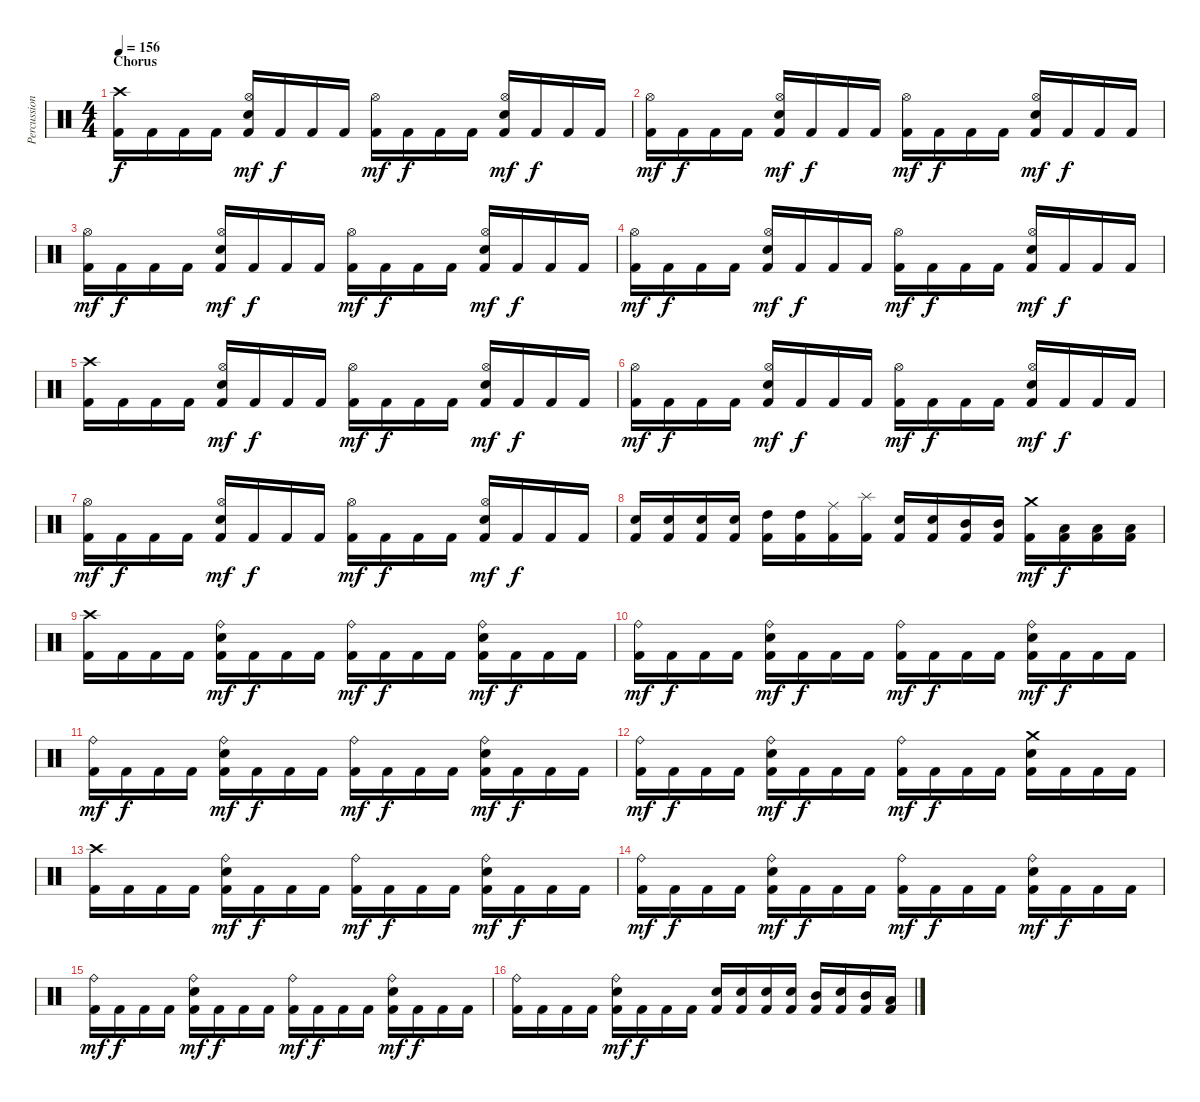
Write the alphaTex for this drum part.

\track ("Percussion" "Percussion") {instrument percussion}
\staff {score}
\articulation defaults
\ts (4 4)
\section ("" "Chorus")
\tempo 156
\clef neutral
\ks c
("Crash high (hit)" "Kick (hit) 2").16{dy f} "Kick (hit) 2".16 "Kick (hit) 2".16 "Kick (hit) 2".16 ("Hi-Hat (open)" "Electric Snare (hit)" "Kick (hit) 2").16{dy mf} "Kick (hit) 2".16{dy f} "Kick (hit) 2".16 "Kick (hit) 2".16 ("Hi-Hat (open)" "Kick (hit) 2").16{dy mf} "Kick (hit) 2".16{dy f} "Kick (hit) 2".16 "Kick (hit) 2".16 ("Hi-Hat (open)" "Electric Snare (hit)" "Kick (hit) 2").16{dy mf} "Kick (hit) 2".16{dy f} "Kick (hit) 2".16 "Kick (hit) 2".16 |
("Hi-Hat (open)" "Kick (hit) 2").16{dy mf} "Kick (hit) 2".16{dy f} "Kick (hit) 2".16 "Kick (hit) 2".16 ("Hi-Hat (open)" "Electric Snare (hit)" "Kick (hit) 2").16{dy mf} "Kick (hit) 2".16{dy f} "Kick (hit) 2".16 "Kick (hit) 2".16 ("Hi-Hat (open)" "Kick (hit) 2").16{dy mf} "Kick (hit) 2".16{dy f} "Kick (hit) 2".16 "Kick (hit) 2".16 ("Hi-Hat (open)" "Electric Snare (hit)" "Kick (hit) 2").16{dy mf} "Kick (hit) 2".16{dy f} "Kick (hit) 2".16 "Kick (hit) 2".16 |
("Hi-Hat (open)" "Kick (hit) 2").16{dy mf} "Kick (hit) 2".16{dy f} "Kick (hit) 2".16 "Kick (hit) 2".16 ("Hi-Hat (open)" "Electric Snare (hit)" "Kick (hit) 2").16{dy mf} "Kick (hit) 2".16{dy f} "Kick (hit) 2".16 "Kick (hit) 2".16 ("Hi-Hat (open)" "Kick (hit) 2").16{dy mf} "Kick (hit) 2".16{dy f} "Kick (hit) 2".16 "Kick (hit) 2".16 ("Hi-Hat (open)" "Electric Snare (hit)" "Kick (hit) 2").16{dy mf} "Kick (hit) 2".16{dy f} "Kick (hit) 2".16 "Kick (hit) 2".16 |
("Hi-Hat (open)" "Kick (hit) 2").16{dy mf} "Kick (hit) 2".16{dy f} "Kick (hit) 2".16 "Kick (hit) 2".16 ("Hi-Hat (open)" "Electric Snare (hit)" "Kick (hit) 2").16{dy mf} "Kick (hit) 2".16{dy f} "Kick (hit) 2".16 "Kick (hit) 2".16 ("Hi-Hat (open)" "Kick (hit) 2").16{dy mf} "Kick (hit) 2".16{dy f} "Kick (hit) 2".16 "Kick (hit) 2".16 ("Hi-Hat (open)" "Electric Snare (hit)" "Kick (hit) 2").16{dy mf} "Kick (hit) 2".16{dy f} "Kick (hit) 2".16 "Kick (hit) 2".16 |
("Crash high (hit)" "Kick (hit) 2").16 "Kick (hit) 2".16 "Kick (hit) 2".16 "Kick (hit) 2".16 ("Hi-Hat (open)" "Electric Snare (hit)" "Kick (hit) 2").16{dy mf} "Kick (hit) 2".16{dy f} "Kick (hit) 2".16 "Kick (hit) 2".16 ("Hi-Hat (open)" "Kick (hit) 2").16{dy mf} "Kick (hit) 2".16{dy f} "Kick (hit) 2".16 "Kick (hit) 2".16 ("Hi-Hat (open)" "Electric Snare (hit)" "Kick (hit) 2").16{dy mf} "Kick (hit) 2".16{dy f} "Kick (hit) 2".16 "Kick (hit) 2".16 |
("Hi-Hat (open)" "Kick (hit) 2").16{dy mf} "Kick (hit) 2".16{dy f} "Kick (hit) 2".16 "Kick (hit) 2".16 ("Hi-Hat (open)" "Electric Snare (hit)" "Kick (hit) 2").16{dy mf} "Kick (hit) 2".16{dy f} "Kick (hit) 2".16 "Kick (hit) 2".16 ("Hi-Hat (open)" "Kick (hit) 2").16{dy mf} "Kick (hit) 2".16{dy f} "Kick (hit) 2".16 "Kick (hit) 2".16 ("Hi-Hat (open)" "Electric Snare (hit)" "Kick (hit) 2").16{dy mf} "Kick (hit) 2".16{dy f} "Kick (hit) 2".16 "Kick (hit) 2".16 |
("Hi-Hat (open)" "Kick (hit) 2").16{dy mf} "Kick (hit) 2".16{dy f} "Kick (hit) 2".16 "Kick (hit) 2".16 ("Hi-Hat (open)" "Electric Snare (hit)" "Kick (hit) 2").16{dy mf} "Kick (hit) 2".16{dy f} "Kick (hit) 2".16 "Kick (hit) 2".16 ("Hi-Hat (open)" "Kick (hit) 2").16{dy mf} "Kick (hit) 2".16{dy f} "Kick (hit) 2".16 "Kick (hit) 2".16 ("Hi-Hat (open)" "Electric Snare (hit)" "Kick (hit) 2").16{dy mf} "Kick (hit) 2".16{dy f} "Kick (hit) 2".16 "Kick (hit) 2".16 |
("Electric Snare (hit)" "Kick (hit) 2").16 ("Electric Snare (hit)" "Kick (hit) 2").16 ("Electric Snare (hit)" "Kick (hit) 2").16 ("Electric Snare (hit)" "Kick (hit) 2").16 ("High Tom (hit)" "Kick (hit) 2").16 ("High Tom (hit)" "Kick (hit) 2").16 ("Ride (middle)" "Kick (hit) 2").16 ("Splash (hit)" "Kick (hit) 2").16 ("Electric Snare (hit)" "Kick (hit) 2").16 ("Electric Snare (hit)" "Kick (hit) 2").16 ("Mid Tom (hit)" "Kick (hit) 2").16 ("Mid Tom (hit)" "Kick (hit) 2").16 ("Crash medium (hit)" "Kick (hit) 2").16{dy mf} ("Low Tom (hit)" "Kick (hit) 2").16{dy f} ("Low Tom (hit)" "Kick (hit) 2").16 ("Low Tom (hit)" "Kick (hit) 2").16 |
("Crash high (hit)" "Kick (hit) 2").16 "Kick (hit) 2".16 "Kick (hit) 2".16 "Kick (hit) 2".16 ("Ride (bell)" "Electric Snare (hit)" "Kick (hit) 2").16{dy mf} "Kick (hit) 2".16{dy f} "Kick (hit) 2".16 "Kick (hit) 2".16 ("Ride (bell)" "Kick (hit) 2").16{dy mf} "Kick (hit) 2".16{dy f} "Kick (hit) 2".16 "Kick (hit) 2".16 ("Ride (bell)" "Electric Snare (hit)" "Kick (hit) 2").16{dy mf} "Kick (hit) 2".16{dy f} "Kick (hit) 2".16 "Kick (hit) 2".16 |
("Ride (bell)" "Kick (hit) 2").16{dy mf} "Kick (hit) 2".16{dy f} "Kick (hit) 2".16 "Kick (hit) 2".16 ("Ride (bell)" "Electric Snare (hit)" "Kick (hit) 2").16{dy mf} "Kick (hit) 2".16{dy f} "Kick (hit) 2".16 "Kick (hit) 2".16 ("Ride (bell)" "Kick (hit) 2").16{dy mf} "Kick (hit) 2".16{dy f} "Kick (hit) 2".16 "Kick (hit) 2".16 ("Ride (bell)" "Electric Snare (hit)" "Kick (hit) 2").16{dy mf} "Kick (hit) 2".16{dy f} "Kick (hit) 2".16 "Kick (hit) 2".16 |
("Ride (bell)" "Kick (hit) 2").16{dy mf} "Kick (hit) 2".16{dy f} "Kick (hit) 2".16 "Kick (hit) 2".16 ("Ride (bell)" "Electric Snare (hit)" "Kick (hit) 2").16{dy mf} "Kick (hit) 2".16{dy f} "Kick (hit) 2".16 "Kick (hit) 2".16 ("Ride (bell)" "Kick (hit) 2").16{dy mf} "Kick (hit) 2".16{dy f} "Kick (hit) 2".16 "Kick (hit) 2".16 ("Ride (bell)" "Electric Snare (hit)" "Kick (hit) 2").16{dy mf} "Kick (hit) 2".16{dy f} "Kick (hit) 2".16 "Kick (hit) 2".16 |
("Ride (bell)" "Kick (hit) 2").16{dy mf} "Kick (hit) 2".16{dy f} "Kick (hit) 2".16 "Kick (hit) 2".16 ("Ride (bell)" "Electric Snare (hit)" "Kick (hit) 2").16{dy mf} "Kick (hit) 2".16{dy f} "Kick (hit) 2".16 "Kick (hit) 2".16 ("Ride (bell)" "Kick (hit) 2").16{dy mf} "Kick (hit) 2".16{dy f} "Kick (hit) 2".16 "Kick (hit) 2".16 ("Crash medium (hit)" "Electric Snare (hit)" "Kick (hit) 2").16 "Kick (hit) 2".16 "Kick (hit) 2".16 "Kick (hit) 2".16 |
("Crash high (hit)" "Kick (hit) 2").16 "Kick (hit) 2".16 "Kick (hit) 2".16 "Kick (hit) 2".16 ("Ride (bell)" "Electric Snare (hit)" "Kick (hit) 2").16{dy mf} "Kick (hit) 2".16{dy f} "Kick (hit) 2".16 "Kick (hit) 2".16 ("Ride (bell)" "Kick (hit) 2").16{dy mf} "Kick (hit) 2".16{dy f} "Kick (hit) 2".16 "Kick (hit) 2".16 ("Ride (bell)" "Electric Snare (hit)" "Kick (hit) 2").16{dy mf} "Kick (hit) 2".16{dy f} "Kick (hit) 2".16 "Kick (hit) 2".16 |
("Ride (bell)" "Kick (hit) 2").16{dy mf} "Kick (hit) 2".16{dy f} "Kick (hit) 2".16 "Kick (hit) 2".16 ("Ride (bell)" "Electric Snare (hit)" "Kick (hit) 2").16{dy mf} "Kick (hit) 2".16{dy f} "Kick (hit) 2".16 "Kick (hit) 2".16 ("Ride (bell)" "Kick (hit) 2").16{dy mf} "Kick (hit) 2".16{dy f} "Kick (hit) 2".16 "Kick (hit) 2".16 ("Ride (bell)" "Electric Snare (hit)" "Kick (hit) 2").16{dy mf} "Kick (hit) 2".16{dy f} "Kick (hit) 2".16 "Kick (hit) 2".16 |
("Ride (bell)" "Kick (hit) 2").16{dy mf} "Kick (hit) 2".16{dy f} "Kick (hit) 2".16 "Kick (hit) 2".16 ("Ride (bell)" "Electric Snare (hit)" "Kick (hit) 2").16{dy mf} "Kick (hit) 2".16{dy f} "Kick (hit) 2".16 "Kick (hit) 2".16 ("Ride (bell)" "Kick (hit) 2").16{dy mf} "Kick (hit) 2".16{dy f} "Kick (hit) 2".16 "Kick (hit) 2".16 ("Ride (bell)" "Electric Snare (hit)" "Kick (hit) 2").16{dy mf} "Kick (hit) 2".16{dy f} "Kick (hit) 2".16 "Kick (hit) 2".16 |
("Ride (bell)" "Kick (hit) 2").16 "Kick (hit) 2".16 "Kick (hit) 2".16 "Kick (hit) 2".16 ("Ride (bell)" "Electric Snare (hit)" "Kick (hit) 2").16{dy mf} "Kick (hit) 2".16{dy f} "Kick (hit) 2".16 "Kick (hit) 2".16 ("Electric Snare (hit)" "Kick (hit) 2").16 ("Electric Snare (hit)" "Kick (hit) 2").16 ("Electric Snare (hit)" "Kick (hit) 2").16 ("Electric Snare (hit)" "Kick (hit) 2").16 ("Mid Tom (hit)" "Kick (hit) 2").16 ("Electric Snare (hit)" "Kick (hit) 2").16 ("Mid Tom (hit)" "Kick (hit) 2").16 ("Low Tom (hit)" "Kick (hit) 2").16
